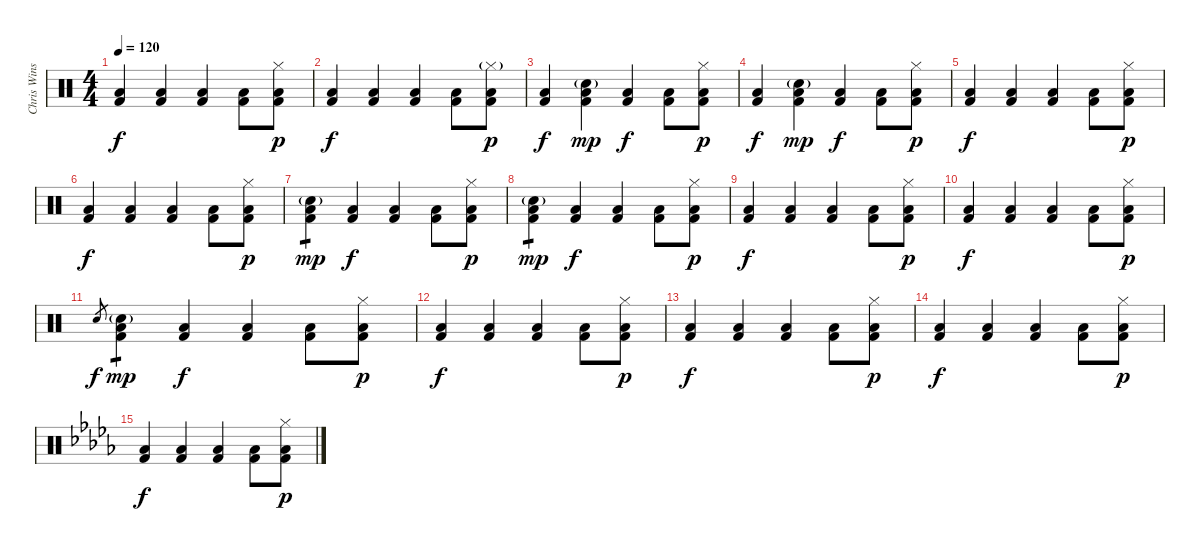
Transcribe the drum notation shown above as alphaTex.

\track ("Chris Winship (Drums)" "Chris Wins") {instrument percussion}
\staff {score}
\articulation defaults
\ts (4 4)
\tempo 120
\clef neutral
\ks c
("Low Floor Tom (hit)" "Kick (hit) 2").4{dy f} ("Low Floor Tom (hit)" "Kick (hit) 2").4 ("Low Floor Tom (hit)" "Kick (hit) 2").4 ("Low Floor Tom (hit)" "Kick (hit) 2").8 ("Low Floor Tom (hit)" "Hi-Hat (closed)" "Kick (hit) 2").8{dy p} |
("Low Floor Tom (hit)" "Kick (hit) 2").4{dy f} ("Low Floor Tom (hit)" "Kick (hit) 2").4 ("Low Floor Tom (hit)" "Kick (hit) 2").4 ("Low Floor Tom (hit)" "Kick (hit) 2").8 ("Low Floor Tom (hit)" "Hi-Hat (closed)"{g} "Kick (hit) 2").8{dy p} |
("Low Floor Tom (hit)" "Kick (hit) 2").4{dy f} ("Electric Snare (hit)"{g} "Low Floor Tom (hit)" "Kick (hit) 2").4{dy mp} ("Low Floor Tom (hit)" "Kick (hit) 2").4{dy f} ("Low Floor Tom (hit)" "Kick (hit) 2").8 ("Low Floor Tom (hit)" "Hi-Hat (closed)" "Kick (hit) 2").8{dy p} |
("Low Floor Tom (hit)" "Kick (hit) 2").4{dy f} ("Electric Snare (hit)"{g} "Low Floor Tom (hit)" "Kick (hit) 2").4{dy mp} ("Low Floor Tom (hit)" "Kick (hit) 2").4{dy f} ("Low Floor Tom (hit)" "Kick (hit) 2").8 ("Low Floor Tom (hit)" "Hi-Hat (closed)" "Kick (hit) 2").8{dy p} |
("Low Floor Tom (hit)" "Kick (hit) 2").4{dy f} ("Low Floor Tom (hit)" "Kick (hit) 2").4 ("Low Floor Tom (hit)" "Kick (hit) 2").4 ("Low Floor Tom (hit)" "Kick (hit) 2").8 ("Low Floor Tom (hit)" "Hi-Hat (closed)" "Kick (hit) 2").8{dy p} |
("Low Floor Tom (hit)" "Kick (hit) 2").4{dy f} ("Low Floor Tom (hit)" "Kick (hit) 2").4 ("Low Floor Tom (hit)" "Kick (hit) 2").4 ("Low Floor Tom (hit)" "Kick (hit) 2").8 ("Low Floor Tom (hit)" "Hi-Hat (closed)" "Kick (hit) 2").8{dy p} |
("Electric Snare (hit)"{g} "Low Floor Tom (hit)" "Kick (hit) 2").4{tp 1 dy mp} ("Low Floor Tom (hit)" "Kick (hit) 2").4{dy f} ("Low Floor Tom (hit)" "Kick (hit) 2").4 ("Low Floor Tom (hit)" "Kick (hit) 2").8 ("Low Floor Tom (hit)" "Hi-Hat (closed)" "Kick (hit) 2").8{dy p} |
("Electric Snare (hit)"{g} "Low Floor Tom (hit)" "Kick (hit) 2").4{tp 1 dy mp} ("Low Floor Tom (hit)" "Kick (hit) 2").4{dy f} ("Low Floor Tom (hit)" "Kick (hit) 2").4 ("Low Floor Tom (hit)" "Kick (hit) 2").8 ("Low Floor Tom (hit)" "Hi-Hat (closed)" "Kick (hit) 2").8{dy p} |
("Low Floor Tom (hit)" "Kick (hit) 2").4{dy f} ("Low Floor Tom (hit)" "Kick (hit) 2").4 ("Low Floor Tom (hit)" "Kick (hit) 2").4 ("Low Floor Tom (hit)" "Kick (hit) 2").8 ("Low Floor Tom (hit)" "Hi-Hat (closed)" "Kick (hit) 2").8{dy p} |
("Low Floor Tom (hit)" "Kick (hit) 2").4{dy f} ("Low Floor Tom (hit)" "Kick (hit) 2").4 ("Low Floor Tom (hit)" "Kick (hit) 2").4 ("Low Floor Tom (hit)" "Kick (hit) 2").8 ("Low Floor Tom (hit)" "Hi-Hat (closed)" "Kick (hit) 2").8{dy p} |
"Electric Snare (hit)".8{gr dy f} ("Snare (hit) 2"{g} "Low Floor Tom (hit)" "Kick (hit) 2").4{tp 1 dy mp} ("Low Floor Tom (hit)" "Kick (hit) 2").4{dy f} ("Low Floor Tom (hit)" "Kick (hit) 2").4 ("Low Floor Tom (hit)" "Kick (hit) 2").8 ("Low Floor Tom (hit)" "Hi-Hat (closed)" "Kick (hit) 2").8{dy p} |
("Low Floor Tom (hit)" "Kick (hit) 2").4{dy f} ("Low Floor Tom (hit)" "Kick (hit) 2").4 ("Low Floor Tom (hit)" "Kick (hit) 2").4 ("Low Floor Tom (hit)" "Kick (hit) 2").8 ("Low Floor Tom (hit)" "Hi-Hat (closed)" "Kick (hit) 2").8{dy p} |
("Low Floor Tom (hit)" "Kick (hit) 2").4{dy f} ("Low Floor Tom (hit)" "Kick (hit) 2").4 ("Low Floor Tom (hit)" "Kick (hit) 2").4 ("Low Floor Tom (hit)" "Kick (hit) 2").8 ("Low Floor Tom (hit)" "Hi-Hat (closed)" "Kick (hit) 2").8{dy p} |
("Low Floor Tom (hit)" "Kick (hit) 2").4{dy f} ("Low Floor Tom (hit)" "Kick (hit) 2").4 ("Low Floor Tom (hit)" "Kick (hit) 2").4 ("Low Floor Tom (hit)" "Kick (hit) 2").8 ("Low Floor Tom (hit)" "Hi-Hat (closed)" "Kick (hit) 2").8{dy p} |
\ks bbminor
("Low Floor Tom (hit)" "Kick (hit) 2").4{dy f} ("Low Floor Tom (hit)" "Kick (hit) 2").4 ("Low Floor Tom (hit)" "Kick (hit) 2").4 ("Low Floor Tom (hit)" "Kick (hit) 2").8 ("Low Floor Tom (hit)" "Hi-Hat (closed)" "Kick (hit) 2").8{dy p}
